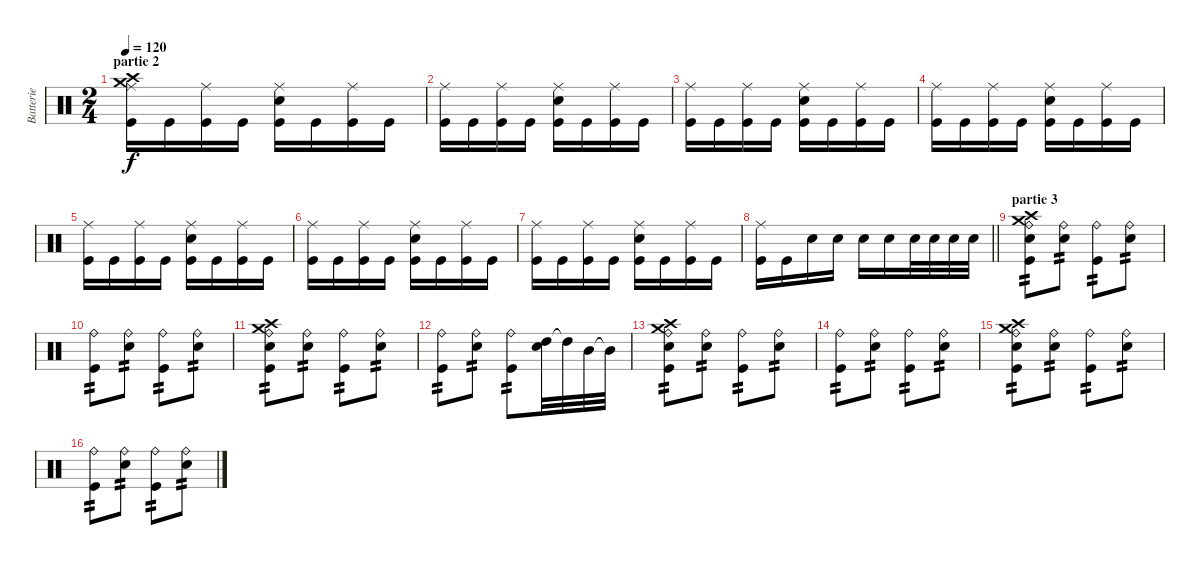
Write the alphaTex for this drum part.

\track ("Batterie" "Batterie") {instrument percussion}
\staff {score}
\articulation defaults
\ts (2 4)
\section ("" "partie 2")
\tempo 120
\clef neutral
\ks c
("Crash medium (hit)" "Crash high (hit)" "Ride (middle)" "Kick (hit)").16{dy f} "Kick (hit)".16 ("Ride (middle)" "Kick (hit)").16 "Kick (hit)".16 ("Ride (middle)" "Snare (hit) 2" "Kick (hit)").16 "Kick (hit)".16 ("Ride (middle)" "Kick (hit)").16 "Kick (hit)".16 |
("Ride (middle)" "Kick (hit)").16 "Kick (hit)".16 ("Ride (middle)" "Kick (hit)").16 "Kick (hit)".16 ("Ride (middle)" "Snare (hit) 2" "Kick (hit)").16 "Kick (hit)".16 ("Ride (middle)" "Kick (hit)").16 "Kick (hit)".16 |
("Ride (middle)" "Kick (hit)").16 "Kick (hit)".16 ("Ride (middle)" "Kick (hit)").16 "Kick (hit)".16 ("Ride (middle)" "Snare (hit) 2" "Kick (hit)").16 "Kick (hit)".16 ("Ride (middle)" "Kick (hit)").16 "Kick (hit)".16 |
("Ride (middle)" "Kick (hit)").16 "Kick (hit)".16 ("Ride (middle)" "Kick (hit)").16 "Kick (hit)".16 ("Ride (middle)" "Snare (hit) 2" "Kick (hit)").16 "Kick (hit)".16 ("Ride (middle)" "Kick (hit)").16 "Kick (hit)".16 |
("Ride (middle)" "Kick (hit)").16 "Kick (hit)".16 ("Ride (middle)" "Kick (hit)").16 "Kick (hit)".16 ("Ride (middle)" "Snare (hit) 2" "Kick (hit)").16 "Kick (hit)".16 ("Ride (middle)" "Kick (hit)").16 "Kick (hit)".16 |
("Ride (middle)" "Kick (hit)").16 "Kick (hit)".16 ("Ride (middle)" "Kick (hit)").16 "Kick (hit)".16 ("Ride (middle)" "Snare (hit) 2" "Kick (hit)").16 "Kick (hit)".16 ("Ride (middle)" "Kick (hit)").16 "Kick (hit)".16 |
("Ride (middle)" "Kick (hit)").16 "Kick (hit)".16 ("Ride (middle)" "Kick (hit)").16 "Kick (hit)".16 ("Ride (middle)" "Snare (hit) 2" "Kick (hit)").16 "Kick (hit)".16 ("Ride (middle)" "Kick (hit)").16 "Kick (hit)".16 |
\barLineRight lightlight
("Ride (middle)" "Kick (hit)").16 "Kick (hit)".16 "Electric Snare (hit)".16 "Electric Snare (hit)".16 "Electric Snare (hit)".16 "Electric Snare (hit)".16 "Electric Snare (hit)".32 "Electric Snare (hit)".32 "Electric Snare (hit)".32 "Electric Snare (hit)".32 |
\section ("" "partie 3")
("Crash medium (hit)" "Ride (bell)" "Crash high (hit)" "Electric Snare (hit)" "Kick (hit)").8{tp 2} ("Ride (bell)" "Electric Snare (hit)").8{tp 2} ("Ride (bell)" "Kick (hit)").8{tp 2} ("Ride (bell)" "Electric Snare (hit)").8{tp 2} |
("Ride (bell)" "Kick (hit)").8{tp 2} ("Ride (bell)" "Electric Snare (hit)").8{tp 2} ("Ride (bell)" "Kick (hit)").8{tp 2} ("Ride (bell)" "Electric Snare (hit)").8{tp 2} |
("Crash medium (hit)" "Ride (bell)" "Crash high (hit)" "Electric Snare (hit)" "Kick (hit)").8{tp 2} ("Ride (bell)" "Electric Snare (hit)").8{tp 2} ("Ride (bell)" "Kick (hit)").8{tp 2} ("Ride (bell)" "Electric Snare (hit)").8{tp 2} |
("Ride (bell)" "Kick (hit)").8{tp 2} ("Ride (bell)" "Electric Snare (hit)").8{tp 2} ("Ride (bell)" "Kick (hit)").8{tp 2} ("High Tom (hit)" "Electric Snare (hit)").32 "High Tom (hit)"{t}.32 "Mid Tom (hit)".32 "Mid Tom (hit)"{t}.32 |
("Crash medium (hit)" "Ride (bell)" "Crash high (hit)" "Electric Snare (hit)" "Kick (hit)").8{tp 2} ("Ride (bell)" "Electric Snare (hit)").8{tp 2} ("Ride (bell)" "Kick (hit)").8{tp 2} ("Ride (bell)" "Electric Snare (hit)").8{tp 2} |
("Ride (bell)" "Kick (hit)").8{tp 2} ("Ride (bell)" "Electric Snare (hit)").8{tp 2} ("Ride (bell)" "Kick (hit)").8{tp 2} ("Ride (bell)" "Electric Snare (hit)").8{tp 2} |
("Crash medium (hit)" "Ride (bell)" "Crash high (hit)" "Electric Snare (hit)" "Kick (hit)").8{tp 2} ("Ride (bell)" "Electric Snare (hit)").8{tp 2} ("Ride (bell)" "Kick (hit)").8{tp 2} ("Ride (bell)" "Electric Snare (hit)").8{tp 2} |
("Ride (bell)" "Kick (hit)").8{tp 2} ("Ride (bell)" "Electric Snare (hit)").8{tp 2} ("Ride (bell)" "Kick (hit)").8{tp 2} ("Ride (bell)" "Electric Snare (hit)").8{tp 2}
